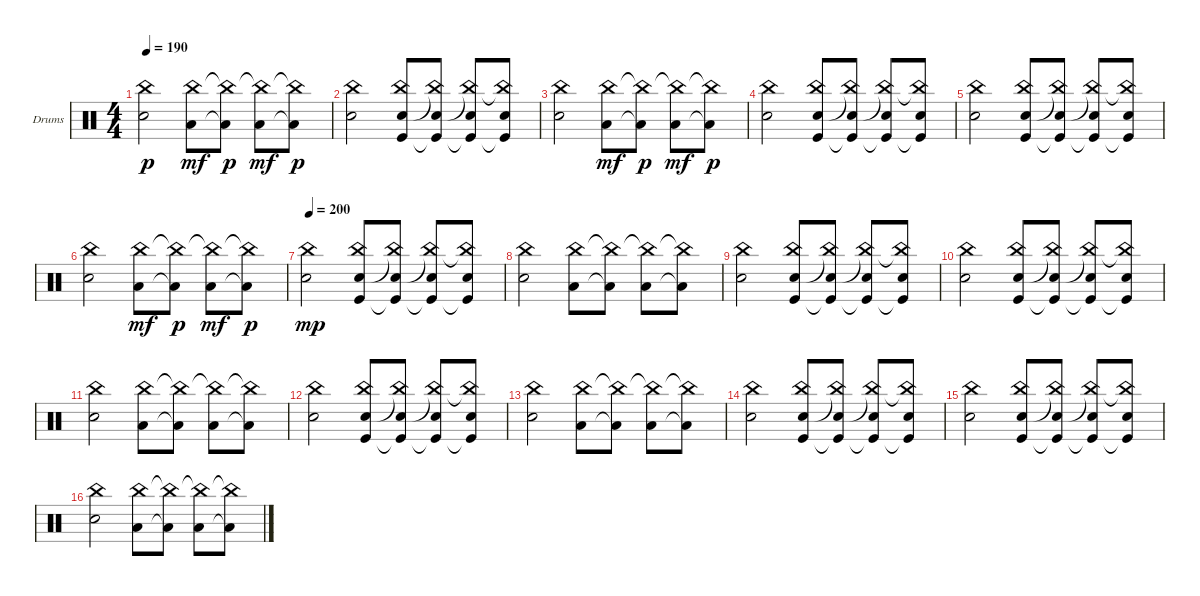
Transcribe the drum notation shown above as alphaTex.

\defaultSystemsLayout 4
\bracketExtendMode groupsimilarinstruments
\firstSystemTrackNameOrientation horizontal
\otherSystemsTrackNameOrientation horizontal
\track ("Drumkit" "Drums") {instrument percussion}
\staff {score}
\articulation defaults
\ts (4 4)
\tempo 190
\clef neutral
\ks c
("Snare (hit) 2" "China (hit)").2{dy p} ("China (hit)" "Low Tom (hit)").8{dy mf} ("China (hit)"{t} "Low Tom (hit)"{t}).8{dy p} ("China (hit)"{t} "Low Tom (hit)").8{dy mf} ("China (hit)"{t} "Low Tom (hit)"{t}).8{dy p} |
("Snare (hit) 2" "China (hit)").2 ("Snare (hit) 2" "China (hit)" "Kick (hit)").8 ("China (hit)"{t} "Snare (hit) 2" "Kick (hit)"{t}).8 ("Snare (hit) 2" "China (hit)"{t} "Kick (hit)"{t}).8 ("Snare (hit) 2" "China (hit)"{t} "Kick (hit)"{t}).8 |
("Snare (hit) 2" "China (hit)").2 ("China (hit)" "Low Tom (hit)").8{dy mf} ("China (hit)"{t} "Low Tom (hit)"{t}).8{dy p} ("China (hit)"{t} "Low Tom (hit)").8{dy mf} ("China (hit)"{t} "Low Tom (hit)"{t}).8{dy p} |
("Snare (hit) 2" "China (hit)").2 ("Snare (hit) 2" "China (hit)" "Kick (hit)").8 ("China (hit)"{t} "Snare (hit) 2" "Kick (hit)"{t}).8 ("Snare (hit) 2" "China (hit)"{t} "Kick (hit)"{t}).8 ("Snare (hit) 2" "China (hit)"{t} "Kick (hit)"{t}).8 |
("Snare (hit) 2" "China (hit)").2 ("Snare (hit) 2" "China (hit)" "Kick (hit)").8 ("China (hit)"{t} "Snare (hit) 2" "Kick (hit)"{t}).8 ("Snare (hit) 2" "China (hit)"{t} "Kick (hit)"{t}).8 ("Snare (hit) 2" "China (hit)"{t} "Kick (hit)"{t}).8 |
("Snare (hit) 2" "China (hit)").2 ("China (hit)" "Low Tom (hit)").8{dy mf} ("China (hit)"{t} "Low Tom (hit)"{t}).8{dy p} ("China (hit)"{t} "Low Tom (hit)").8{dy mf} ("China (hit)"{t} "Low Tom (hit)"{t}).8{dy p} |
\tempo 200
("Snare (hit) 2" "China (hit)").2{dy mp} ("Snare (hit) 2" "China (hit)" "Kick (hit)").8 ("China (hit)"{t} "Snare (hit) 2" "Kick (hit)"{t}).8 ("Snare (hit) 2" "China (hit)"{t} "Kick (hit)"{t}).8 ("Snare (hit) 2" "China (hit)"{t} "Kick (hit)"{t}).8 |
("Snare (hit) 2" "China (hit)").2 ("China (hit)" "Low Tom (hit)").8 ("China (hit)"{t} "Low Tom (hit)"{t}).8 ("China (hit)"{t} "Low Tom (hit)").8 ("China (hit)"{t} "Low Tom (hit)"{t}).8 |
("Snare (hit) 2" "China (hit)").2 ("Snare (hit) 2" "China (hit)" "Kick (hit)").8 ("China (hit)"{t} "Snare (hit) 2" "Kick (hit)"{t}).8 ("Snare (hit) 2" "China (hit)"{t} "Kick (hit)"{t}).8 ("Snare (hit) 2" "China (hit)"{t} "Kick (hit)"{t}).8 |
("Snare (hit) 2" "China (hit)").2 ("Snare (hit) 2" "China (hit)" "Kick (hit)").8 ("China (hit)"{t} "Snare (hit) 2" "Kick (hit)"{t}).8 ("Snare (hit) 2" "China (hit)"{t} "Kick (hit)"{t}).8 ("Snare (hit) 2" "China (hit)"{t} "Kick (hit)"{t}).8 |
("Snare (hit) 2" "China (hit)").2 ("China (hit)" "Low Tom (hit)").8 ("China (hit)"{t} "Low Tom (hit)"{t}).8 ("China (hit)"{t} "Low Tom (hit)").8 ("China (hit)"{t} "Low Tom (hit)"{t}).8 |
("Snare (hit) 2" "China (hit)").2 ("Snare (hit) 2" "China (hit)" "Kick (hit)").8 ("China (hit)"{t} "Snare (hit) 2" "Kick (hit)"{t}).8 ("Snare (hit) 2" "China (hit)"{t} "Kick (hit)"{t}).8 ("Snare (hit) 2" "China (hit)"{t} "Kick (hit)"{t}).8 |
("Snare (hit) 2" "China (hit)").2 ("China (hit)" "Low Tom (hit)").8 ("China (hit)"{t} "Low Tom (hit)"{t}).8 ("China (hit)"{t} "Low Tom (hit)").8 ("China (hit)"{t} "Low Tom (hit)"{t}).8 |
("Snare (hit) 2" "China (hit)").2 ("Snare (hit) 2" "China (hit)" "Kick (hit)").8 ("China (hit)"{t} "Snare (hit) 2" "Kick (hit)"{t}).8 ("Snare (hit) 2" "China (hit)"{t} "Kick (hit)"{t}).8 ("Snare (hit) 2" "China (hit)"{t} "Kick (hit)"{t}).8 |
("Snare (hit) 2" "China (hit)").2 ("Snare (hit) 2" "China (hit)" "Kick (hit)").8 ("China (hit)"{t} "Snare (hit) 2" "Kick (hit)"{t}).8 ("Snare (hit) 2" "China (hit)"{t} "Kick (hit)"{t}).8 ("Snare (hit) 2" "China (hit)"{t} "Kick (hit)"{t}).8 |
("Snare (hit) 2" "China (hit)").2 ("China (hit)" "Low Tom (hit)").8 ("China (hit)"{t} "Low Tom (hit)"{t}).8 ("China (hit)"{t} "Low Tom (hit)").8 ("China (hit)"{t} "Low Tom (hit)"{t}).8
